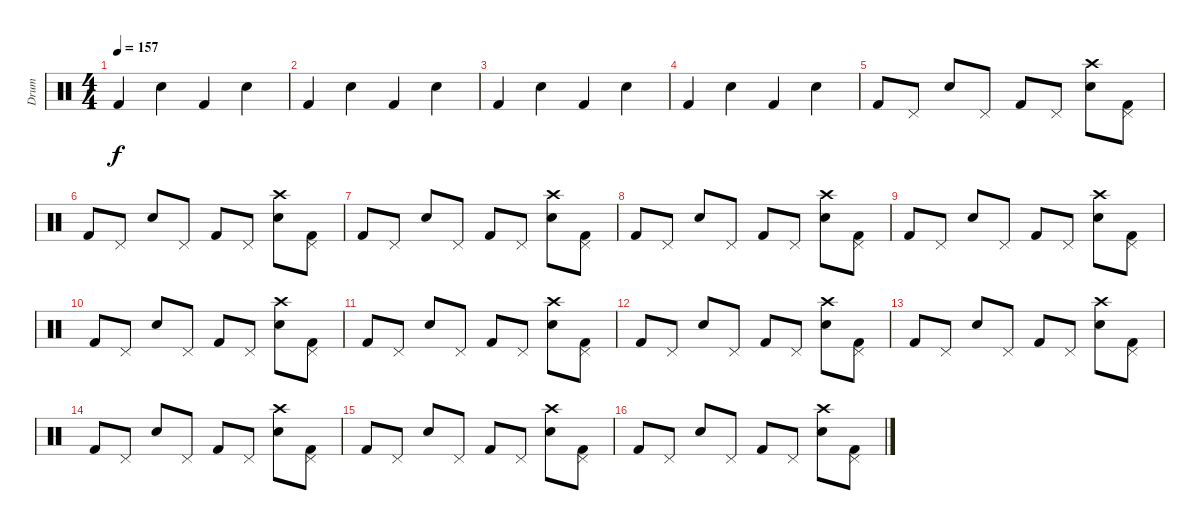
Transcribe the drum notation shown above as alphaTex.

\track ("Drum" "Drum") {instrument percussion}
\staff {score}
\articulation defaults
\ts (4 4)
\tempo 157
\clef neutral
\ks c "Kick (hit) 2".4{dy f} "Electric Snare (hit)".4 "Kick (hit) 2".4 "Electric Snare (hit)".4
|
"Kick (hit) 2".4 "Electric Snare (hit)".4 "Kick (hit) 2".4 "Electric Snare (hit)".4 |
"Kick (hit) 2".4 "Electric Snare (hit)".4 "Kick (hit) 2".4 "Electric Snare (hit)".4 |
"Kick (hit) 2".4 "Electric Snare (hit)".4 "Kick (hit) 2".4 "Electric Snare (hit)".4 |
"Kick (hit) 2".8 "Pedal Hi-Hat (hit)".8 "Electric Snare (hit)".8 "Pedal Hi-Hat (hit)".8 "Kick (hit) 2".8 "Pedal Hi-Hat (hit)".8 ("Crash high (hit)" "Electric Snare (hit)").8 ("Pedal Hi-Hat (hit)" "Kick (hit) 2").8 |
"Kick (hit) 2".8 "Pedal Hi-Hat (hit)".8 "Electric Snare (hit)".8 "Pedal Hi-Hat (hit)".8 "Kick (hit) 2".8 "Pedal Hi-Hat (hit)".8 ("Crash high (hit)" "Electric Snare (hit)").8 ("Pedal Hi-Hat (hit)" "Kick (hit) 2").8 |
"Kick (hit) 2".8 "Pedal Hi-Hat (hit)".8 "Electric Snare (hit)".8 "Pedal Hi-Hat (hit)".8 "Kick (hit) 2".8 "Pedal Hi-Hat (hit)".8 ("Crash high (hit)" "Electric Snare (hit)").8 ("Pedal Hi-Hat (hit)" "Kick (hit) 2").8 |
"Kick (hit) 2".8 "Pedal Hi-Hat (hit)".8 "Electric Snare (hit)".8 "Pedal Hi-Hat (hit)".8 "Kick (hit) 2".8 "Pedal Hi-Hat (hit)".8 ("Crash high (hit)" "Electric Snare (hit)").8 ("Pedal Hi-Hat (hit)" "Kick (hit) 2").8 |
"Kick (hit) 2".8 "Pedal Hi-Hat (hit)".8 "Electric Snare (hit)".8 "Pedal Hi-Hat (hit)".8 "Kick (hit) 2".8 "Pedal Hi-Hat (hit)".8 ("Crash high (hit)" "Electric Snare (hit)").8 ("Pedal Hi-Hat (hit)" "Kick (hit) 2").8 |
"Kick (hit) 2".8 "Pedal Hi-Hat (hit)".8 "Electric Snare (hit)".8 "Pedal Hi-Hat (hit)".8 "Kick (hit) 2".8 "Pedal Hi-Hat (hit)".8 ("Crash high (hit)" "Electric Snare (hit)").8 ("Pedal Hi-Hat (hit)" "Kick (hit) 2").8 |
"Kick (hit) 2".8 "Pedal Hi-Hat (hit)".8 "Electric Snare (hit)".8 "Pedal Hi-Hat (hit)".8 "Kick (hit) 2".8 "Pedal Hi-Hat (hit)".8 ("Crash high (hit)" "Electric Snare (hit)").8 ("Pedal Hi-Hat (hit)" "Kick (hit) 2").8 |
"Kick (hit) 2".8 "Pedal Hi-Hat (hit)".8 "Electric Snare (hit)".8 "Pedal Hi-Hat (hit)".8 "Kick (hit) 2".8 "Pedal Hi-Hat (hit)".8 ("Crash high (hit)" "Electric Snare (hit)").8 ("Pedal Hi-Hat (hit)" "Kick (hit) 2").8 |
"Kick (hit) 2".8 "Pedal Hi-Hat (hit)".8 "Electric Snare (hit)".8 "Pedal Hi-Hat (hit)".8 "Kick (hit) 2".8 "Pedal Hi-Hat (hit)".8 ("Crash high (hit)" "Electric Snare (hit)").8 ("Pedal Hi-Hat (hit)" "Kick (hit) 2").8 |
"Kick (hit) 2".8 "Pedal Hi-Hat (hit)".8 "Electric Snare (hit)".8 "Pedal Hi-Hat (hit)".8 "Kick (hit) 2".8 "Pedal Hi-Hat (hit)".8 ("Crash high (hit)" "Electric Snare (hit)").8 ("Pedal Hi-Hat (hit)" "Kick (hit) 2").8 |
"Kick (hit) 2".8 "Pedal Hi-Hat (hit)".8 "Electric Snare (hit)".8 "Pedal Hi-Hat (hit)".8 "Kick (hit) 2".8 "Pedal Hi-Hat (hit)".8 ("Crash high (hit)" "Electric Snare (hit)").8 ("Pedal Hi-Hat (hit)" "Kick (hit) 2").8 |
"Kick (hit) 2".8 "Pedal Hi-Hat (hit)".8 "Electric Snare (hit)".8 "Pedal Hi-Hat (hit)".8 "Kick (hit) 2".8 "Pedal Hi-Hat (hit)".8 ("Crash high (hit)" "Electric Snare (hit)").8 ("Pedal Hi-Hat (hit)" "Kick (hit) 2").8
